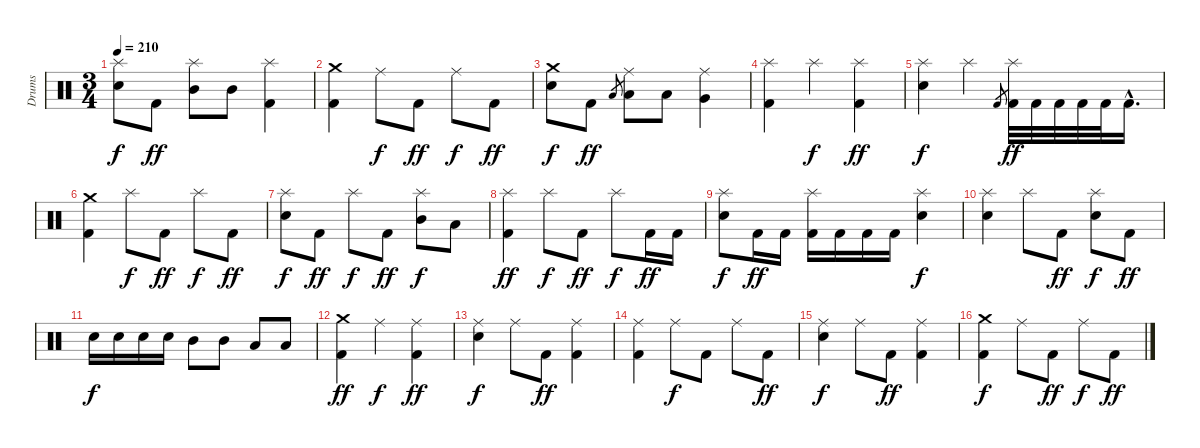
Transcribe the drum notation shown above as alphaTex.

\track ("Drums" "Drums") {instrument percussion}
\staff {score}
\articulation defaults
\ts (3 4)
\tempo 210
\clef neutral
\ks c
("Splash (hit)" "Electric Snare (hit)").8{dy f} "Kick (hit) 2".8{dy ff} ("Splash (hit)" "Mid Tom (hit)").8 "Mid Tom (hit)".8 ("Splash (hit)" "Kick (hit) 2").4 |
("Crash medium (hit)" "Kick (hit) 2").4 "Ride (middle)".8{dy f} "Kick (hit) 2".8{dy ff} "Ride (middle)".8{dy f} "Kick (hit) 2".8{dy ff} |
("Crash medium (hit)" "Electric Snare (hit)").8{dy f} "Kick (hit) 2".8{dy ff} "Low Tom (hit)".8{gr} ("Ride (middle)" "Low Tom (hit)").8 "Low Tom (hit)".8 ("Ride (middle)" "Very Low Tom (hit)").4 |
("Splash (hit)" "Kick (hit) 2").4 "Splash (hit)".4{dy f} ("Splash (hit)" "Kick (hit) 2").4{dy ff} |
("Splash (hit)" "Electric Snare (hit)").4{dy f} "Splash (hit)".4 "Kick (hit) 2".8{gr} ("Splash (hit)" "Kick (hit) 2").32{dy ff} "Kick (hit) 2".32 "Kick (hit) 2".32 "Kick (hit) 2".32 "Kick (hit) 2".32 "Kick (hit) 2"{hac}.16{d} |
("Crash medium (hit)" "Kick (hit) 2").4 "Splash (hit)".8{dy f} "Kick (hit) 2".8{dy ff} "Splash (hit)".8{dy f} "Kick (hit) 2".8{dy ff} |
("Splash (hit)" "Electric Snare (hit)").8{dy f} "Kick (hit) 2".8{dy ff} "Splash (hit)".8{dy f} "Kick (hit) 2".8{dy ff} ("Splash (hit)" "Mid Tom (hit)").8{dy f} "Low Tom (hit)".8 |
("Splash (hit)" "Kick (hit) 2").4{dy ff} "Splash (hit)".8{dy f} "Kick (hit) 2".8{dy ff} "Splash (hit)".8{dy f} "Kick (hit) 2".16{dy ff} "Kick (hit) 2".16 |
("Splash (hit)" "Electric Snare (hit)").8{dy f} "Kick (hit) 2".16{dy ff} "Kick (hit) 2".16 ("Splash (hit)" "Kick (hit) 2").16 "Kick (hit) 2".16 "Kick (hit) 2".16 "Kick (hit) 2".16 ("Splash (hit)" "Electric Snare (hit)").4{dy f} |
("Splash (hit)" "Electric Snare (hit)").4 "Splash (hit)".8 "Kick (hit) 2".8{dy ff} ("Splash (hit)" "Electric Snare (hit)").8{dy f} "Kick (hit) 2".8{dy ff} |
"Electric Snare (hit)".16{dy f} "Electric Snare (hit)".16 "Electric Snare (hit)".16 "Electric Snare (hit)".16 "Mid Tom (hit)".8 "Mid Tom (hit)".8 "Low Tom (hit)".8 "Low Tom (hit)".8 |
("Crash medium (hit)" "Kick (hit) 2").4{dy ff} "Ride (middle)".4{dy f} ("Ride (middle)" "Kick (hit) 2").4{dy ff} |
("Ride (middle)" "Electric Snare (hit)").4{dy f} "Ride (middle)".8 "Kick (hit) 2".8{dy ff} ("Ride (middle)" "Kick (hit) 2").4 |
("Ride (middle)" "Kick (hit) 2").4 "Ride (middle)".8{dy f} "Kick (hit) 2".8 "Ride (middle)".8 "Kick (hit) 2".8{dy ff} |
("Ride (middle)" "Electric Snare (hit)").4{dy f} "Ride (middle)".8 "Kick (hit) 2".8{dy ff} ("Ride (middle)" "Kick (hit) 2").4 |
("Crash medium (hit)" "Kick (hit) 2").4{dy f} "Ride (middle)".8 "Kick (hit) 2".8{dy ff} "Ride (middle)".8{dy f} "Kick (hit) 2".8{dy ff}
